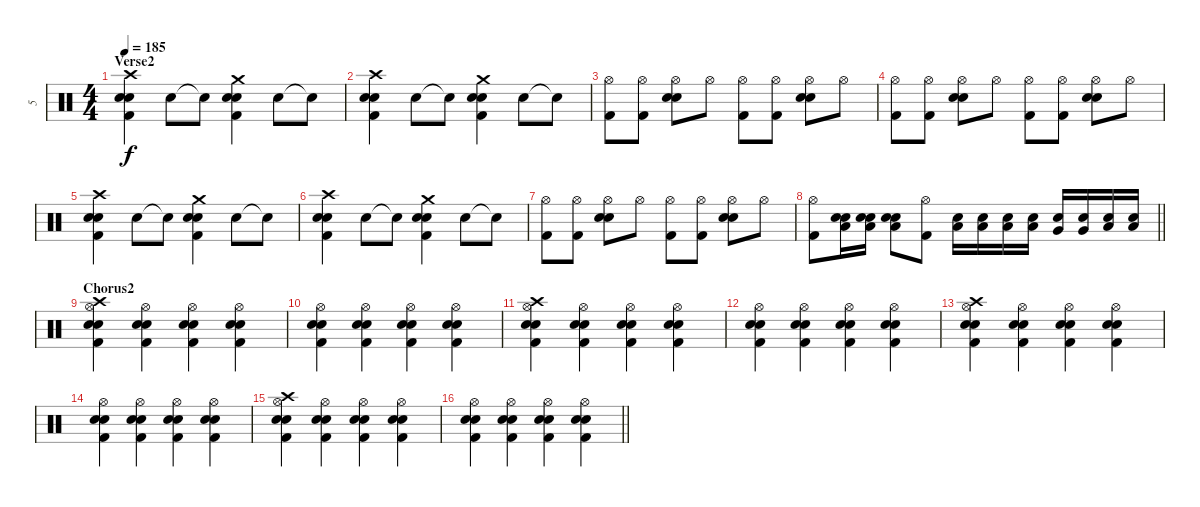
\track ("5" "5") {instrument percussion}
\staff {score}
\articulation defaults
\ts (4 4)
\section ("" "Verse2")
\tempo 185
\clef neutral
\ks c
("Crash high (hit)" "Electric Snare (hit)" "Snare (hit) 2" "Kick (hit) 2").4{dy f} "Electric Snare (hit)".8 "Electric Snare (hit)"{t}.8 ("Crash medium (hit)" "Electric Snare (hit)" "Snare (hit) 2" "Kick (hit) 2").4 "Electric Snare (hit)".8 "Electric Snare (hit)"{t}.8 |
("Crash high (hit)" "Electric Snare (hit)" "Snare (hit) 2" "Kick (hit) 2").4 "Electric Snare (hit)".8 "Electric Snare (hit)"{t}.8 ("Crash medium (hit)" "Electric Snare (hit)" "Snare (hit) 2" "Kick (hit) 2").4 "Electric Snare (hit)".8 "Electric Snare (hit)"{t}.8 |
("Kick (hit) 2" "Hi-Hat (open)").8 ("Kick (hit) 2" "Hi-Hat (open)").8 ("Snare (hit) 2" "Electric Snare (hit)" "Hi-Hat (open)").8 "Hi-Hat (open)".8 ("Kick (hit) 2" "Hi-Hat (open)").8 ("Kick (hit) 2" "Hi-Hat (open)").8 ("Snare (hit) 2" "Electric Snare (hit)" "Hi-Hat (open)").8 "Hi-Hat (open)".8 |
("Kick (hit) 2" "Hi-Hat (open)").8 ("Kick (hit) 2" "Hi-Hat (open)").8 ("Snare (hit) 2" "Electric Snare (hit)" "Hi-Hat (open)").8 "Hi-Hat (open)".8 ("Kick (hit) 2" "Hi-Hat (open)").8 ("Kick (hit) 2" "Hi-Hat (open)").8 ("Snare (hit) 2" "Electric Snare (hit)" "Hi-Hat (open)").8 "Hi-Hat (open)".8 |
("Crash high (hit)" "Electric Snare (hit)" "Snare (hit) 2" "Kick (hit) 2").4 "Electric Snare (hit)".8 "Electric Snare (hit)"{t}.8 ("Crash medium (hit)" "Electric Snare (hit)" "Snare (hit) 2" "Kick (hit) 2").4 "Electric Snare (hit)".8 "Electric Snare (hit)"{t}.8 |
("Crash high (hit)" "Electric Snare (hit)" "Snare (hit) 2" "Kick (hit) 2").4 "Electric Snare (hit)".8 "Electric Snare (hit)"{t}.8 ("Crash medium (hit)" "Electric Snare (hit)" "Snare (hit) 2" "Kick (hit) 2").4 "Electric Snare (hit)".8 "Electric Snare (hit)"{t}.8 |
("Kick (hit) 2" "Hi-Hat (open)").8 ("Kick (hit) 2" "Hi-Hat (open)").8 ("Snare (hit) 2" "Electric Snare (hit)" "Hi-Hat (open)").8 "Hi-Hat (open)".8 ("Kick (hit) 2" "Hi-Hat (open)").8 ("Kick (hit) 2" "Hi-Hat (open)").8 ("Snare (hit) 2" "Electric Snare (hit)" "Hi-Hat (open)").8 "Hi-Hat (open)".8 |
\barLineRight lightlight
("Kick (hit) 2" "Hi-Hat (open)").8 ("Low Tom (hit)" "Snare (hit) 2" "Electric Snare (hit)").16 ("Low Tom (hit)" "Snare (hit) 2" "Electric Snare (hit)").16 ("Low Tom (hit)" "Snare (hit) 2" "Electric Snare (hit)").8 ("Kick (hit) 2" "Hi-Hat (open)").8 ("Low Tom (hit)" "Snare (hit) 2").16 ("Low Tom (hit)" "Snare (hit) 2").16 ("Low Tom (hit)" "Snare (hit) 2").16 ("Low Tom (hit)" "Snare (hit) 2").16 ("Very Low Tom (hit)" "Snare (hit) 2").16 ("Very Low Tom (hit)" "Snare (hit) 2").16 ("Low Floor Tom (hit)" "Snare (hit) 2").16 ("Low Floor Tom (hit)" "Snare (hit) 2").16 |
\section ("" "Chorus2")
("Crash high (hit)" "Hi-Hat (open)" "Kick (hit) 2" "Snare (hit) 2" "Electric Snare (hit)").4 ("Hi-Hat (open)" "Kick (hit) 2" "Snare (hit) 2" "Electric Snare (hit)").4 ("Hi-Hat (open)" "Kick (hit) 2" "Snare (hit) 2" "Electric Snare (hit)").4 ("Hi-Hat (open)" "Kick (hit) 2" "Snare (hit) 2" "Electric Snare (hit)").4 |
("Hi-Hat (open)" "Kick (hit) 2" "Snare (hit) 2" "Electric Snare (hit)").4 ("Hi-Hat (open)" "Kick (hit) 2" "Snare (hit) 2" "Electric Snare (hit)").4 ("Hi-Hat (open)" "Kick (hit) 2" "Snare (hit) 2" "Electric Snare (hit)").4 ("Hi-Hat (open)" "Kick (hit) 2" "Snare (hit) 2" "Electric Snare (hit)").4 |
("Crash high (hit)" "Hi-Hat (open)" "Kick (hit) 2" "Snare (hit) 2" "Electric Snare (hit)").4 ("Hi-Hat (open)" "Kick (hit) 2" "Snare (hit) 2" "Electric Snare (hit)").4 ("Hi-Hat (open)" "Kick (hit) 2" "Snare (hit) 2" "Electric Snare (hit)").4 ("Hi-Hat (open)" "Kick (hit) 2" "Snare (hit) 2" "Electric Snare (hit)").4 |
("Hi-Hat (open)" "Kick (hit) 2" "Snare (hit) 2" "Electric Snare (hit)").4 ("Hi-Hat (open)" "Kick (hit) 2" "Snare (hit) 2" "Electric Snare (hit)").4 ("Hi-Hat (open)" "Kick (hit) 2" "Snare (hit) 2" "Electric Snare (hit)").4 ("Hi-Hat (open)" "Kick (hit) 2" "Snare (hit) 2" "Electric Snare (hit)").4 |
("Crash high (hit)" "Hi-Hat (open)" "Kick (hit) 2" "Snare (hit) 2" "Electric Snare (hit)").4 ("Hi-Hat (open)" "Kick (hit) 2" "Snare (hit) 2" "Electric Snare (hit)").4 ("Hi-Hat (open)" "Kick (hit) 2" "Snare (hit) 2" "Electric Snare (hit)").4 ("Hi-Hat (open)" "Kick (hit) 2" "Snare (hit) 2" "Electric Snare (hit)").4 |
("Hi-Hat (open)" "Kick (hit) 2" "Snare (hit) 2" "Electric Snare (hit)").4 ("Hi-Hat (open)" "Kick (hit) 2" "Snare (hit) 2" "Electric Snare (hit)").4 ("Hi-Hat (open)" "Kick (hit) 2" "Snare (hit) 2" "Electric Snare (hit)").4 ("Hi-Hat (open)" "Kick (hit) 2" "Snare (hit) 2" "Electric Snare (hit)").4 |
("Crash high (hit)" "Hi-Hat (open)" "Kick (hit) 2" "Snare (hit) 2" "Electric Snare (hit)").4 ("Hi-Hat (open)" "Kick (hit) 2" "Snare (hit) 2" "Electric Snare (hit)").4 ("Hi-Hat (open)" "Kick (hit) 2" "Snare (hit) 2" "Electric Snare (hit)").4 ("Hi-Hat (open)" "Kick (hit) 2" "Snare (hit) 2" "Electric Snare (hit)").4 |
\barLineRight lightlight
("Hi-Hat (open)" "Kick (hit) 2" "Snare (hit) 2" "Electric Snare (hit)").4 ("Hi-Hat (open)" "Kick (hit) 2" "Snare (hit) 2" "Electric Snare (hit)").4 ("Hi-Hat (open)" "Kick (hit) 2" "Snare (hit) 2" "Electric Snare (hit)").4 ("Hi-Hat (open)" "Kick (hit) 2" "Snare (hit) 2" "Electric Snare (hit)").4
